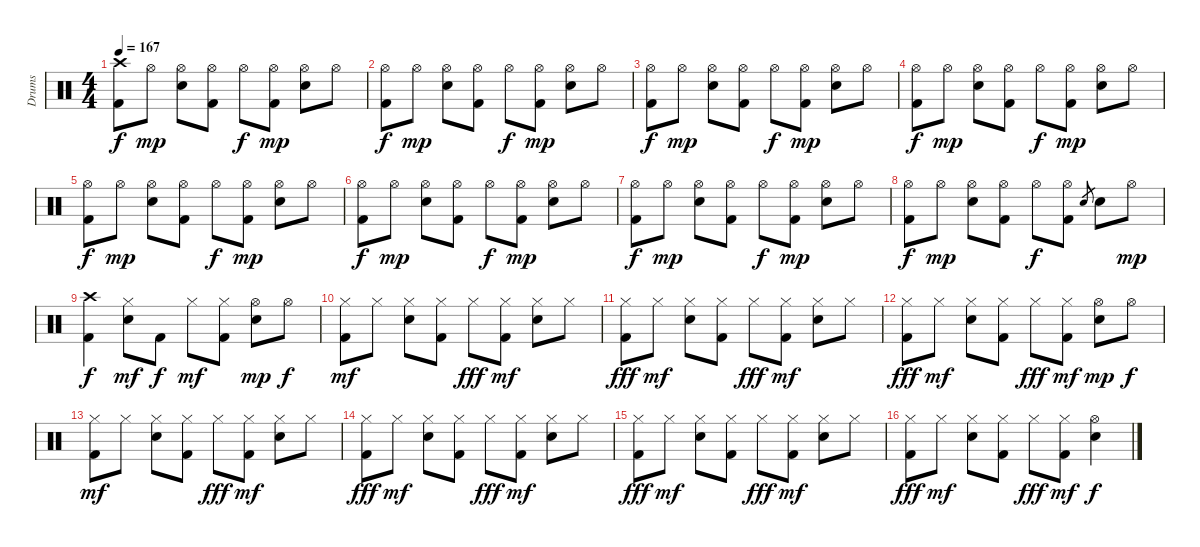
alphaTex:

\track ("Drums" "Drums") {instrument percussion}
\staff {score}
\articulation defaults
\ts (4 4)
\tempo 167
\clef neutral
\ks c
("Crash high (hit)" "Kick (hit) 2").8{dy f} "Hi-Hat (open)".8{dy mp} ("Hi-Hat (open)" "Electric Snare (hit)").8 ("Hi-Hat (open)" "Kick (hit) 2").8 "Hi-Hat (open)".8{dy f} ("Hi-Hat (open)" "Kick (hit) 2").8{dy mp} ("Hi-Hat (open)" "Electric Snare (hit)").8 "Hi-Hat (open)".8 |
("Hi-Hat (open)" "Kick (hit) 2").8{dy f} "Hi-Hat (open)".8{dy mp} ("Hi-Hat (open)" "Electric Snare (hit)").8 ("Hi-Hat (open)" "Kick (hit) 2").8 "Hi-Hat (open)".8{dy f} ("Hi-Hat (open)" "Kick (hit) 2").8{dy mp} ("Hi-Hat (open)" "Electric Snare (hit)").8 "Hi-Hat (open)".8 |
("Hi-Hat (open)" "Kick (hit) 2").8{dy f} "Hi-Hat (open)".8{dy mp} ("Hi-Hat (open)" "Electric Snare (hit)").8 ("Hi-Hat (open)" "Kick (hit) 2").8 "Hi-Hat (open)".8{dy f} ("Hi-Hat (open)" "Kick (hit) 2").8{dy mp} ("Hi-Hat (open)" "Electric Snare (hit)").8 "Hi-Hat (open)".8 |
("Hi-Hat (open)" "Kick (hit) 2").8{dy f} "Hi-Hat (open)".8{dy mp} ("Hi-Hat (open)" "Electric Snare (hit)").8 ("Hi-Hat (open)" "Kick (hit) 2").8 "Hi-Hat (open)".8{dy f} ("Hi-Hat (open)" "Kick (hit) 2").8{dy mp} ("Hi-Hat (open)" "Electric Snare (hit)").8 "Hi-Hat (open)".8 |
("Hi-Hat (open)" "Kick (hit) 2").8{dy f} "Hi-Hat (open)".8{dy mp} ("Hi-Hat (open)" "Electric Snare (hit)").8 ("Hi-Hat (open)" "Kick (hit) 2").8 "Hi-Hat (open)".8{dy f} ("Hi-Hat (open)" "Kick (hit) 2").8{dy mp} ("Hi-Hat (open)" "Electric Snare (hit)").8 "Hi-Hat (open)".8 |
("Hi-Hat (open)" "Kick (hit) 2").8{dy f} "Hi-Hat (open)".8{dy mp} ("Hi-Hat (open)" "Electric Snare (hit)").8 ("Hi-Hat (open)" "Kick (hit) 2").8 "Hi-Hat (open)".8{dy f} ("Hi-Hat (open)" "Kick (hit) 2").8{dy mp} ("Hi-Hat (open)" "Electric Snare (hit)").8 "Hi-Hat (open)".8 |
("Hi-Hat (open)" "Kick (hit) 2").8{dy f} "Hi-Hat (open)".8{dy mp} ("Hi-Hat (open)" "Electric Snare (hit)").8 ("Hi-Hat (open)" "Kick (hit) 2").8 "Hi-Hat (open)".8{dy f} ("Hi-Hat (open)" "Kick (hit) 2").8{dy mp} ("Hi-Hat (open)" "Electric Snare (hit)").8 "Hi-Hat (open)".8 |
("Hi-Hat (open)" "Kick (hit) 2").8{dy f} "Hi-Hat (open)".8{dy mp} ("Hi-Hat (open)" "Electric Snare (hit)").8 ("Hi-Hat (open)" "Kick (hit) 2").8 "Hi-Hat (open)".8{dy f} ("Hi-Hat (open)" "Kick (hit) 2").8 "Electric Snare (hit)".8{gr} "Electric Snare (hit)".8 "Hi-Hat (open)".8{dy mp} |
("Crash high (hit)" "Kick (hit) 2").4{dy f} ("Hi-Hat (closed)" "Electric Snare (hit)").8{dy mf} "Kick (hit) 2".8{dy f} "Hi-Hat (closed)".8{dy mf} ("Hi-Hat (closed)" "Kick (hit) 2").8 ("Hi-Hat (open)" "Electric Snare (hit)").8{dy mp} "Hi-Hat (open)".8{dy f} |
("Hi-Hat (closed)" "Kick (hit) 2").8{dy mf} "Hi-Hat (closed)".8 ("Hi-Hat (closed)" "Electric Snare (hit)").8 ("Hi-Hat (closed)" "Kick (hit) 2").8 "Hi-Hat (closed)".8{dy fff} ("Hi-Hat (closed)" "Kick (hit) 2").8{dy mf} ("Hi-Hat (closed)" "Electric Snare (hit)").8 "Hi-Hat (closed)".8 |
("Hi-Hat (closed)" "Kick (hit) 2").8{dy fff} "Hi-Hat (closed)".8{dy mf} ("Hi-Hat (closed)" "Electric Snare (hit)").8 ("Hi-Hat (closed)" "Kick (hit) 2").8 "Hi-Hat (closed)".8{dy fff} ("Hi-Hat (closed)" "Kick (hit) 2").8{dy mf} ("Hi-Hat (closed)" "Electric Snare (hit)").8 "Hi-Hat (closed)".8 |
("Hi-Hat (closed)" "Kick (hit) 2").8{dy fff} "Hi-Hat (closed)".8{dy mf} ("Hi-Hat (closed)" "Electric Snare (hit)").8 ("Hi-Hat (closed)" "Kick (hit) 2").8 "Hi-Hat (closed)".8{dy fff} ("Hi-Hat (closed)" "Kick (hit) 2").8{dy mf} ("Hi-Hat (open)" "Electric Snare (hit)").8{dy mp} "Hi-Hat (open)".8{dy f} |
("Hi-Hat (closed)" "Kick (hit) 2").8{dy mf} "Hi-Hat (closed)".8 ("Hi-Hat (closed)" "Electric Snare (hit)").8 ("Hi-Hat (closed)" "Kick (hit) 2").8 "Hi-Hat (closed)".8{dy fff} ("Hi-Hat (closed)" "Kick (hit) 2").8{dy mf} ("Hi-Hat (closed)" "Electric Snare (hit)").8 "Hi-Hat (closed)".8 |
("Hi-Hat (closed)" "Kick (hit) 2").8{dy fff} "Hi-Hat (closed)".8{dy mf} ("Hi-Hat (closed)" "Electric Snare (hit)").8 ("Hi-Hat (closed)" "Kick (hit) 2").8 "Hi-Hat (closed)".8{dy fff} ("Hi-Hat (closed)" "Kick (hit) 2").8{dy mf} ("Hi-Hat (closed)" "Electric Snare (hit)").8 "Hi-Hat (closed)".8 |
("Hi-Hat (closed)" "Kick (hit) 2").8{dy fff} "Hi-Hat (closed)".8{dy mf} ("Hi-Hat (closed)" "Electric Snare (hit)").8 ("Hi-Hat (closed)" "Kick (hit) 2").8 "Hi-Hat (closed)".8{dy fff} ("Hi-Hat (closed)" "Kick (hit) 2").8{dy mf} ("Hi-Hat (closed)" "Electric Snare (hit)").8 "Hi-Hat (closed)".8 |
("Hi-Hat (closed)" "Kick (hit) 2").8{dy fff} "Hi-Hat (closed)".8{dy mf} ("Hi-Hat (closed)" "Electric Snare (hit)").8 ("Hi-Hat (closed)" "Kick (hit) 2").8 "Hi-Hat (closed)".8{dy fff} ("Hi-Hat (closed)" "Kick (hit) 2").8{dy mf} ("Hi-Hat (open)" "Electric Snare (hit)").4{dy f}
